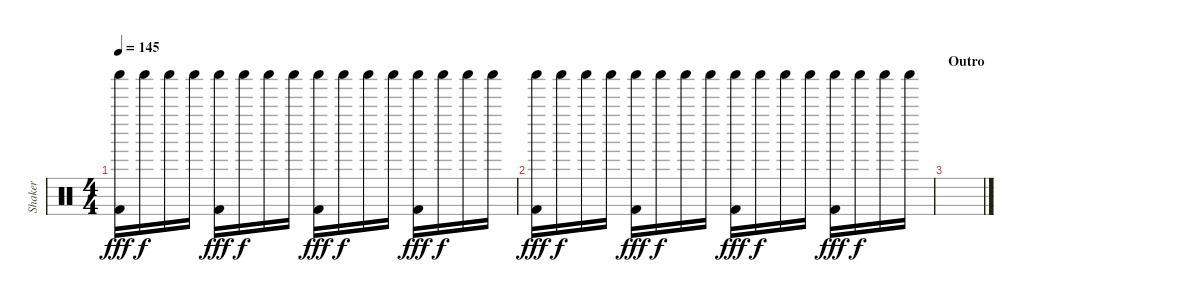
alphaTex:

\track ("Shaker" "Shaker") {instrument percussion}
\staff {score}
\articulation defaults
\ts (4 4)
\tempo 145
\clef neutral
\ks c
("Shaker (hit)" "Kick (hit) 2").16{dy fff} "Shaker (hit)".16{dy f} "Shaker (hit)".16 "Shaker (hit)".16 ("Shaker (hit)" "Kick (hit) 2").16{dy fff} "Shaker (hit)".16{dy f} "Shaker (hit)".16 "Shaker (hit)".16 ("Shaker (hit)" "Kick (hit) 2").16{dy fff} "Shaker (hit)".16{dy f} "Shaker (hit)".16 "Shaker (hit)".16 ("Shaker (hit)" "Kick (hit) 2").16{dy fff} "Shaker (hit)".16{dy f} "Shaker (hit)".16 "Shaker (hit)".16 |
("Shaker (hit)" "Kick (hit) 2").16{dy fff} "Shaker (hit)".16{dy f} "Shaker (hit)".16 "Shaker (hit)".16 ("Shaker (hit)" "Kick (hit) 2").16{dy fff} "Shaker (hit)".16{dy f} "Shaker (hit)".16 "Shaker (hit)".16 ("Shaker (hit)" "Kick (hit) 2").16{dy fff} "Shaker (hit)".16{dy f} "Shaker (hit)".16 "Shaker (hit)".16 ("Shaker (hit)" "Kick (hit) 2").16{dy fff} "Shaker (hit)".16{dy f} "Shaker (hit)".16 "Shaker (hit)".16 |
\section ("" "Outro")
